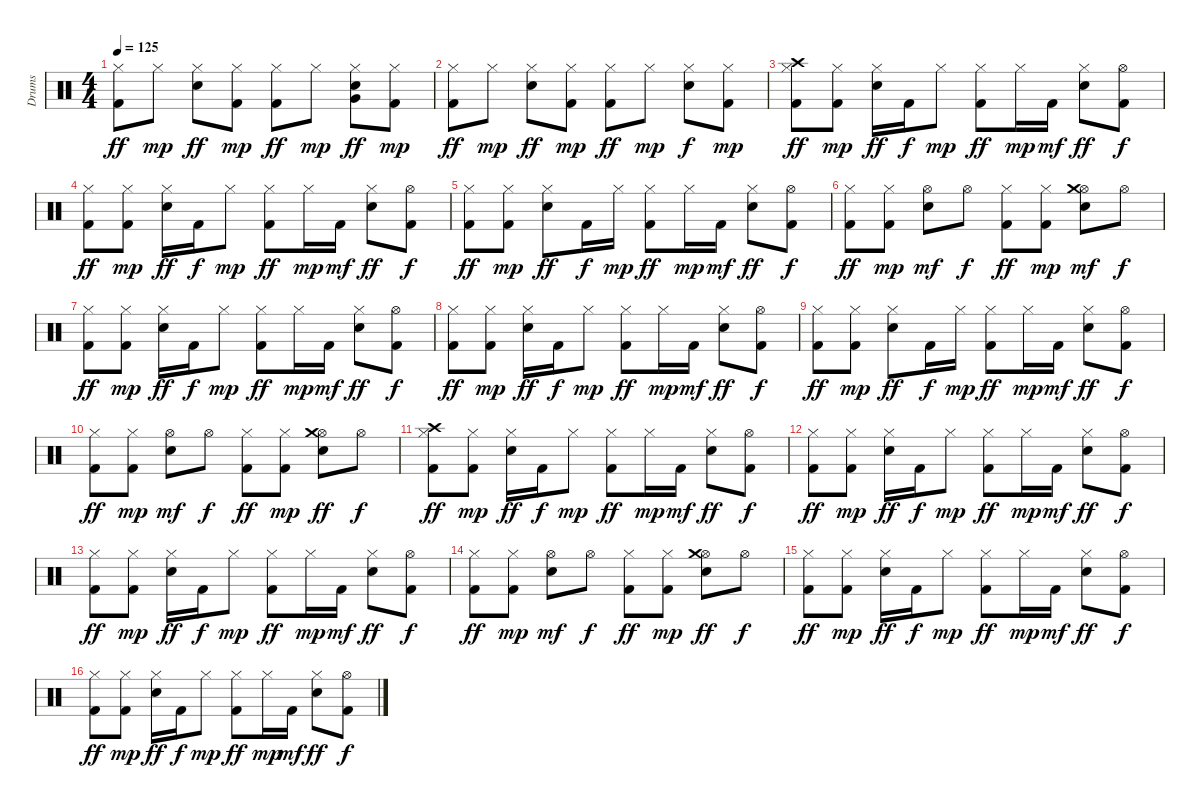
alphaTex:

\track ("Drums" "Drums") {instrument percussion}
\staff {score}
\articulation defaults
\ts (4 4)
\tempo 125
\clef neutral
\ks c
("Hi-Hat (closed)" "Kick (hit) 2").8{dy ff} "Hi-Hat (closed)".8{dy mp} ("Hi-Hat (closed)" "Snare (hit) 2").8{dy ff} ("Kick (hit) 2" "Hi-Hat (closed)").8{dy mp} ("Kick (hit) 2" "Hi-Hat (closed)").8{dy ff} "Hi-Hat (closed)".8{dy mp} ("Hi-Hat (closed)" "Very Low Tom (hit)" "Snare (hit) 2").8{dy ff} ("Kick (hit) 2" "Hi-Hat (closed)").8{dy mp} |
("Kick (hit) 2" "Hi-Hat (closed)").8{dy ff} "Hi-Hat (closed)".8{dy mp} ("Snare (hit) 2" "Hi-Hat (closed)").8{dy ff} ("Kick (hit) 2" "Hi-Hat (closed)").8{dy mp} ("Kick (hit) 2" "Hi-Hat (closed)").8{dy ff} "Hi-Hat (closed)".8{dy mp} ("Hi-Hat (closed)" "Snare (hit) 2").8{dy f} ("Hi-Hat (closed)" "Kick (hit) 2").8{dy mp} |
("Kick (hit) 2" "Crash high (hit)" "Hi-Hat (closed)").8{dy ff} ("Hi-Hat (closed)" "Kick (hit) 2").8{dy mp} ("Snare (hit) 2" "Hi-Hat (closed)").16{dy ff} "Kick (hit) 2".16{dy f} "Hi-Hat (closed)".8{dy mp} ("Hi-Hat (closed)" "Kick (hit) 2").8{dy ff} "Hi-Hat (closed)".16{dy mp} "Kick (hit) 2".16{dy mf} ("Hi-Hat (closed)" "Snare (hit) 2").8{dy ff} ("Hi-Hat (open)" "Kick (hit) 2").8{dy f} |
("Kick (hit) 2" "Hi-Hat (closed)").8{dy ff} ("Kick (hit) 2" "Hi-Hat (closed)").8{dy mp} ("Hi-Hat (closed)" "Snare (hit) 2").16{dy ff} "Kick (hit) 2".16{dy f} "Hi-Hat (closed)".8{dy mp} ("Kick (hit) 2" "Hi-Hat (closed)").8{dy ff} "Hi-Hat (closed)".16{dy mp} "Kick (hit) 2".16{dy mf} ("Snare (hit) 2" "Hi-Hat (closed)").8{dy ff} ("Kick (hit) 2" "Hi-Hat (open)").8{dy f} |
("Kick (hit) 2" "Hi-Hat (closed)").8{dy ff} ("Kick (hit) 2" "Hi-Hat (closed)").8{dy mp} ("Snare (hit) 2" "Hi-Hat (closed)").8{dy ff} "Kick (hit) 2".16{dy f} "Hi-Hat (closed)".16{dy mp} ("Hi-Hat (closed)" "Kick (hit) 2").8{dy ff} "Hi-Hat (closed)".16{dy mp} "Kick (hit) 2".16{dy mf} ("Hi-Hat (closed)" "Snare (hit) 2").8{dy ff} ("Hi-Hat (open)" "Kick (hit) 2").8{dy f} |
("Hi-Hat (closed)" "Kick (hit) 2").8{dy ff} ("Kick (hit) 2" "Hi-Hat (closed)").8{dy mp} ("Snare (hit) 2" "Hi-Hat (open)").8{dy mf} "Hi-Hat (open)".8{dy f} ("Kick (hit) 2" "Hi-Hat (closed)").8{dy ff} ("Kick (hit) 2" "Hi-Hat (closed)").8{dy mp} ("Snare (hit) 2" "Hi-Hat (open)" "Crash medium (hit)").8{dy mf} "Hi-Hat (open)".8{dy f} |
("Hi-Hat (closed)" "Kick (hit) 2").8{dy ff} ("Hi-Hat (closed)" "Kick (hit) 2").8{dy mp} ("Snare (hit) 2" "Hi-Hat (closed)").16{dy ff} "Kick (hit) 2".16{dy f} "Hi-Hat (closed)".8{dy mp} ("Hi-Hat (closed)" "Kick (hit) 2").8{dy ff} "Hi-Hat (closed)".16{dy mp} "Kick (hit) 2".16{dy mf} ("Snare (hit) 2" "Hi-Hat (closed)").8{dy ff} ("Hi-Hat (open)" "Kick (hit) 2").8{dy f} |
("Hi-Hat (closed)" "Kick (hit) 2").8{dy ff} ("Hi-Hat (closed)" "Kick (hit) 2").8{dy mp} ("Hi-Hat (closed)" "Snare (hit) 2").16{dy ff} "Kick (hit) 2".16{dy f} "Hi-Hat (closed)".8{dy mp} ("Kick (hit) 2" "Hi-Hat (closed)").8{dy ff} "Hi-Hat (closed)".16{dy mp} "Kick (hit) 2".16{dy mf} ("Snare (hit) 2" "Hi-Hat (closed)").8{dy ff} ("Hi-Hat (open)" "Kick (hit) 2").8{dy f} |
("Kick (hit) 2" "Hi-Hat (closed)").8{dy ff} ("Kick (hit) 2" "Hi-Hat (closed)").8{dy mp} ("Hi-Hat (closed)" "Snare (hit) 2").8{dy ff} "Kick (hit) 2".16{dy f} "Hi-Hat (closed)".16{dy mp} ("Kick (hit) 2" "Hi-Hat (closed)").8{dy ff} "Hi-Hat (closed)".16{dy mp} "Kick (hit) 2".16{dy mf} ("Hi-Hat (closed)" "Snare (hit) 2").8{dy ff} ("Kick (hit) 2" "Hi-Hat (open)").8{dy f} |
("Hi-Hat (closed)" "Kick (hit) 2").8{dy ff} ("Kick (hit) 2" "Hi-Hat (closed)").8{dy mp} ("Snare (hit) 2" "Hi-Hat (open)").8{dy mf} "Hi-Hat (open)".8{dy f} ("Hi-Hat (closed)" "Kick (hit) 2").8{dy ff} ("Hi-Hat (closed)" "Kick (hit) 2").8{dy mp} ("Hi-Hat (open)" "Crash medium (hit)" "Snare (hit) 2").8{dy ff} "Hi-Hat (open)".8{dy f} |
("Hi-Hat (closed)" "Kick (hit) 2" "Crash high (hit)").8{dy ff} ("Kick (hit) 2" "Hi-Hat (closed)").8{dy mp} ("Snare (hit) 2" "Hi-Hat (closed)").16{dy ff} "Kick (hit) 2".16{dy f} "Hi-Hat (closed)".8{dy mp} ("Kick (hit) 2" "Hi-Hat (closed)").8{dy ff} "Hi-Hat (closed)".16{dy mp} "Kick (hit) 2".16{dy mf} ("Snare (hit) 2" "Hi-Hat (closed)").8{dy ff} ("Hi-Hat (open)" "Kick (hit) 2").8{dy f} |
("Hi-Hat (closed)" "Kick (hit) 2").8{dy ff} ("Kick (hit) 2" "Hi-Hat (closed)").8{dy mp} ("Snare (hit) 2" "Hi-Hat (closed)").16{dy ff} "Kick (hit) 2".16{dy f} "Hi-Hat (closed)".8{dy mp} ("Hi-Hat (closed)" "Kick (hit) 2").8{dy ff} "Hi-Hat (closed)".16{dy mp} "Kick (hit) 2".16{dy mf} ("Hi-Hat (closed)" "Snare (hit) 2").8{dy ff} ("Hi-Hat (open)" "Kick (hit) 2").8{dy f} |
("Hi-Hat (closed)" "Kick (hit) 2").8{dy ff} ("Hi-Hat (closed)" "Kick (hit) 2").8{dy mp} ("Snare (hit) 2" "Hi-Hat (closed)").16{dy ff} "Kick (hit) 2".16{dy f} "Hi-Hat (closed)".8{dy mp} ("Hi-Hat (closed)" "Kick (hit) 2").8{dy ff} "Hi-Hat (closed)".16{dy mp} "Kick (hit) 2".16{dy mf} ("Snare (hit) 2" "Hi-Hat (closed)").8{dy ff} ("Hi-Hat (open)" "Kick (hit) 2").8{dy f} |
("Kick (hit) 2" "Hi-Hat (closed)").8{dy ff} ("Hi-Hat (closed)" "Kick (hit) 2").8{dy mp} ("Snare (hit) 2" "Hi-Hat (open)").8{dy mf} "Hi-Hat (open)".8{dy f} ("Kick (hit) 2" "Hi-Hat (closed)").8{dy ff} ("Hi-Hat (closed)" "Kick (hit) 2").8{dy mp} ("Hi-Hat (open)" "Snare (hit) 2" "Crash medium (hit)").8{dy ff} "Hi-Hat (open)".8{dy f} |
("Kick (hit) 2" "Hi-Hat (closed)").8{dy ff} ("Hi-Hat (closed)" "Kick (hit) 2").8{dy mp} ("Hi-Hat (closed)" "Snare (hit) 2").16{dy ff} "Kick (hit) 2".16{dy f} "Hi-Hat (closed)".8{dy mp} ("Hi-Hat (closed)" "Kick (hit) 2").8{dy ff} "Hi-Hat (closed)".16{dy mp} "Kick (hit) 2".16{dy mf} ("Snare (hit) 2" "Hi-Hat (closed)").8{dy ff} ("Hi-Hat (open)" "Kick (hit) 2").8{dy f} |
("Hi-Hat (closed)" "Kick (hit) 2").8{dy ff} ("Kick (hit) 2" "Hi-Hat (closed)").8{dy mp} ("Hi-Hat (closed)" "Snare (hit) 2").16{dy ff} "Kick (hit) 2".16{dy f} "Hi-Hat (closed)".8{dy mp} ("Kick (hit) 2" "Hi-Hat (closed)").8{dy ff} "Hi-Hat (closed)".16{dy mp} "Kick (hit) 2".16{dy mf} ("Snare (hit) 2" "Hi-Hat (closed)").8{dy ff} ("Kick (hit) 2" "Hi-Hat (open)").8{dy f}
